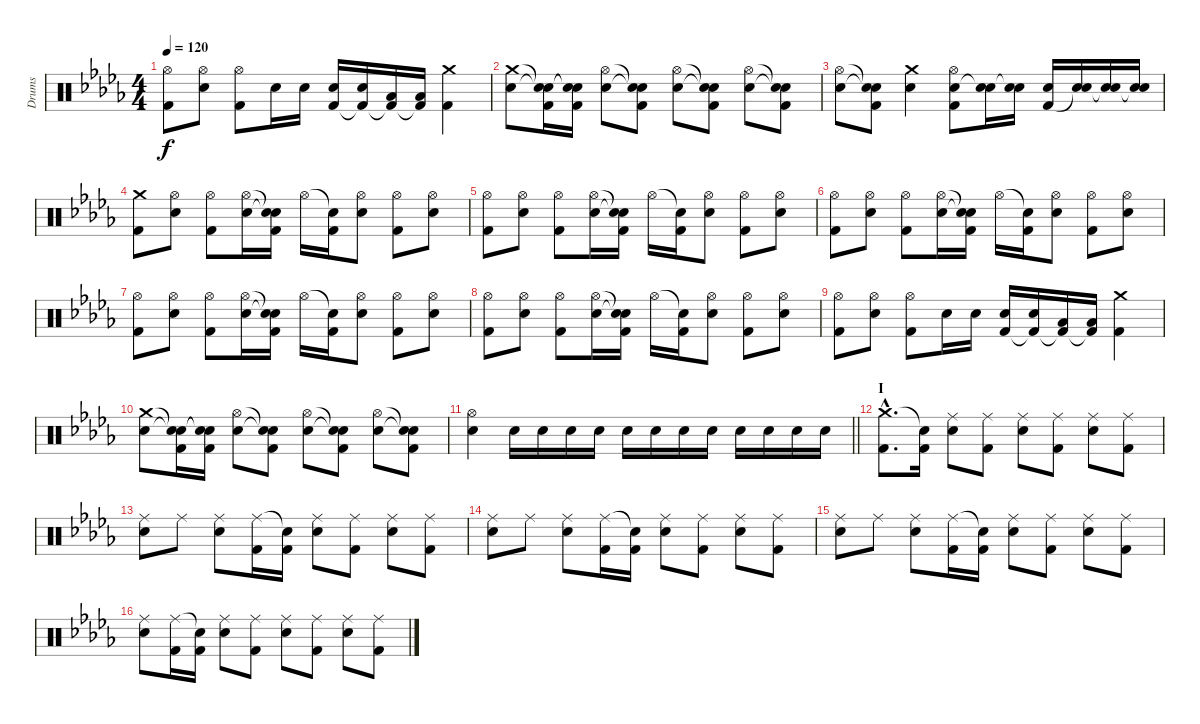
\track ("Drums" "Drums") {instrument percussion}
\staff {score}
\articulation defaults
\ts (4 4)
\tempo 120
\clef neutral
\ks db
("Hi-Hat (open)" "Kick (hit) 2").8{dy f} ("Hi-Hat (open)" "Electric Snare (hit)").8 ("Hi-Hat (open)" "Kick (hit) 2").8 "Electric Snare (hit)".16 "Electric Snare (hit)".16 ("Electric Snare (hit)" "Kick (hit) 2").16 ("Electric Snare (hit)" "Kick (hit) 2"{t}).16 ("Low Tom (hit)" "Kick (hit) 2"{t}).16 ("Low Tom (hit)" "Kick (hit) 2"{t}).16 ("Crash medium (hit)" "Kick (hit) 2").4 |
("Crash medium (hit)" "Electric Snare (hit)").8 ("Snare (hit)"{t} "Snare (hit)"{t} "Kick (hit) 2").16 ("Snare (hit)"{t} "Snare (hit)"{t} "Kick (hit) 2").16 ("Hi-Hat (open)" "Electric Snare (hit)").8 ("Snare (hit)"{t} "Snare (hit)"{t} "Kick (hit) 2").8 ("Hi-Hat (open)" "Electric Snare (hit)").8 ("Snare (hit)"{t} "Snare (hit)"{t} "Kick (hit) 2").8 ("Hi-Hat (open)" "Electric Snare (hit)").8 ("Snare (hit)"{t} "Snare (hit)"{t} "Kick (hit) 2").8 |
("Hi-Hat (open)" "Electric Snare (hit)").8 ("Snare (hit)"{t} "Snare (hit)"{t} "Kick (hit) 2").8 ("Crash medium (hit)" "Electric Snare (hit)").4 ("Hi-Hat (open)" "Electric Snare (hit)" "Kick (hit) 2").8 ("Electric Snare (hit)" "Snare (hit)"{t}).16 ("Electric Snare (hit)" "Snare (hit)"{t}).16 ("Electric Snare (hit)" "Kick (hit) 2").16 ("Electric Snare (hit)" "Snare (hit)"{t}).16 ("Electric Snare (hit)" "Snare (hit)"{t}).16 ("Electric Snare (hit)" "Snare (hit)"{t}).16 |
("Crash medium (hit)" "Kick (hit) 2").8 ("Hi-Hat (open)" "Electric Snare (hit)").8 ("Hi-Hat (open)" "Kick (hit) 2").8 ("Hi-Hat (open)" "Electric Snare (hit)").16 ("Snare (hit)"{t} "Snare (hit)"{t} "Kick (hit) 2").16 "Hi-Hat (open)".16 ("Snare (hit)"{t} "Kick (hit) 2").16 ("Hi-Hat (open)" "Electric Snare (hit)").8 ("Hi-Hat (open)" "Kick (hit) 2").8 ("Hi-Hat (open)" "Electric Snare (hit)").8 |
("Hi-Hat (open)" "Kick (hit) 2").8 ("Hi-Hat (open)" "Electric Snare (hit)").8 ("Hi-Hat (open)" "Kick (hit) 2").8 ("Hi-Hat (open)" "Electric Snare (hit)").16 ("Snare (hit)"{t} "Snare (hit)"{t} "Kick (hit) 2").16 "Hi-Hat (open)".16 ("Snare (hit)"{t} "Kick (hit) 2").16 ("Hi-Hat (open)" "Electric Snare (hit)").8 ("Hi-Hat (open)" "Kick (hit) 2").8 ("Hi-Hat (open)" "Electric Snare (hit)").8 |
("Hi-Hat (open)" "Kick (hit) 2").8 ("Hi-Hat (open)" "Electric Snare (hit)").8 ("Hi-Hat (open)" "Kick (hit) 2").8 ("Hi-Hat (open)" "Electric Snare (hit)").16 ("Snare (hit)"{t} "Snare (hit)"{t} "Kick (hit) 2").16 "Hi-Hat (open)".16 ("Snare (hit)"{t} "Kick (hit) 2").16 ("Hi-Hat (open)" "Electric Snare (hit)").8 ("Hi-Hat (open)" "Kick (hit) 2").8 ("Hi-Hat (open)" "Electric Snare (hit)").8 |
("Hi-Hat (open)" "Kick (hit) 2").8 ("Hi-Hat (open)" "Electric Snare (hit)").8 ("Hi-Hat (open)" "Kick (hit) 2").8 ("Hi-Hat (open)" "Electric Snare (hit)").16 ("Snare (hit)"{t} "Snare (hit)"{t} "Kick (hit) 2").16 "Hi-Hat (open)".16 ("Snare (hit)"{t} "Kick (hit) 2").16 ("Hi-Hat (open)" "Electric Snare (hit)").8 ("Hi-Hat (open)" "Kick (hit) 2").8 ("Hi-Hat (open)" "Electric Snare (hit)").8 |
("Hi-Hat (open)" "Kick (hit) 2").8 ("Hi-Hat (open)" "Electric Snare (hit)").8 ("Hi-Hat (open)" "Kick (hit) 2").8 ("Hi-Hat (open)" "Electric Snare (hit)").16 ("Snare (hit)"{t} "Snare (hit)"{t} "Kick (hit) 2").16 "Hi-Hat (open)".16 ("Snare (hit)"{t} "Kick (hit) 2").16 ("Hi-Hat (open)" "Electric Snare (hit)").8 ("Hi-Hat (open)" "Kick (hit) 2").8 ("Hi-Hat (open)" "Electric Snare (hit)").8 |
("Hi-Hat (open)" "Kick (hit) 2").8 ("Hi-Hat (open)" "Electric Snare (hit)").8 ("Hi-Hat (open)" "Kick (hit) 2").8 "Electric Snare (hit)".16 "Electric Snare (hit)".16 ("Electric Snare (hit)" "Kick (hit) 2").16 ("Electric Snare (hit)" "Kick (hit) 2"{t}).16 ("Low Tom (hit)" "Kick (hit) 2"{t}).16 ("Low Tom (hit)" "Kick (hit) 2"{t}).16 ("Crash medium (hit)" "Kick (hit) 2").4 |
("Crash medium (hit)" "Electric Snare (hit)").8 ("Snare (hit)"{t} "Snare (hit)"{t} "Kick (hit) 2").16 ("Snare (hit)"{t} "Snare (hit)"{t} "Kick (hit) 2").16 ("Hi-Hat (open)" "Electric Snare (hit)").8 ("Snare (hit)"{t} "Snare (hit)"{t} "Kick (hit) 2").8 ("Hi-Hat (open)" "Electric Snare (hit)").8 ("Snare (hit)"{t} "Snare (hit)"{t} "Kick (hit) 2").8 ("Hi-Hat (open)" "Electric Snare (hit)").8 ("Snare (hit)"{t} "Snare (hit)"{t} "Kick (hit) 2").8 |
\barLineRight lightlight
("Hi-Hat (open)" "Electric Snare (hit)").4 "Electric Snare (hit)".16 "Electric Snare (hit)".16 "Electric Snare (hit)".16 "Electric Snare (hit)".16 "Electric Snare (hit)".16 "Electric Snare (hit)".16 "Electric Snare (hit)".16 "Electric Snare (hit)".16 "Electric Snare (hit)".16 "Electric Snare (hit)".16 "Electric Snare (hit)".16 "Electric Snare (hit)".16 |
\section ("" "I")
("Crash medium (hit)"{hac} "Kick (hit) 2"{hac}).8{d} ("Snare (hit)"{t} "Kick (hit) 2").16 ("Ride (middle)" "Electric Snare (hit)").8 ("Ride (middle)" "Kick (hit) 2").8 ("Ride (middle)" "Electric Snare (hit)").8 ("Ride (middle)" "Kick (hit) 2").8 ("Ride (middle)" "Electric Snare (hit)").8 ("Ride (middle)" "Kick (hit) 2").8 |
("Ride (middle)" "Electric Snare (hit)").8 "Ride (middle)".8 ("Ride (middle)" "Electric Snare (hit)").8 ("Ride (middle)" "Kick (hit) 2").16 ("Snare (hit)"{t} "Kick (hit) 2").16 ("Ride (middle)" "Electric Snare (hit)").8 ("Ride (middle)" "Kick (hit) 2").8 ("Ride (middle)" "Electric Snare (hit)").8 ("Ride (middle)" "Kick (hit) 2").8 |
("Ride (middle)" "Electric Snare (hit)").8 "Ride (middle)".8 ("Ride (middle)" "Electric Snare (hit)").8 ("Ride (middle)" "Kick (hit) 2").16 ("Snare (hit)"{t} "Kick (hit) 2").16 ("Ride (middle)" "Electric Snare (hit)").8 ("Ride (middle)" "Kick (hit) 2").8 ("Ride (middle)" "Electric Snare (hit)").8 ("Ride (middle)" "Kick (hit) 2").8 |
("Ride (middle)" "Electric Snare (hit)").8 "Ride (middle)".8 ("Ride (middle)" "Electric Snare (hit)").8 ("Ride (middle)" "Kick (hit) 2").16 ("Snare (hit)"{t} "Kick (hit) 2").16 ("Ride (middle)" "Electric Snare (hit)").8 ("Ride (middle)" "Kick (hit) 2").8 ("Ride (middle)" "Electric Snare (hit)").8 ("Ride (middle)" "Kick (hit) 2").8 |
("Ride (middle)" "Electric Snare (hit)").8 ("Ride (middle)" "Kick (hit) 2").16 ("Snare (hit)"{t} "Kick (hit) 2").16 ("Ride (middle)" "Electric Snare (hit)").8 ("Ride (middle)" "Kick (hit) 2").8 ("Ride (middle)" "Electric Snare (hit)").8 ("Ride (middle)" "Kick (hit) 2").8 ("Ride (middle)" "Electric Snare (hit)").8 ("Ride (middle)" "Kick (hit) 2").8
